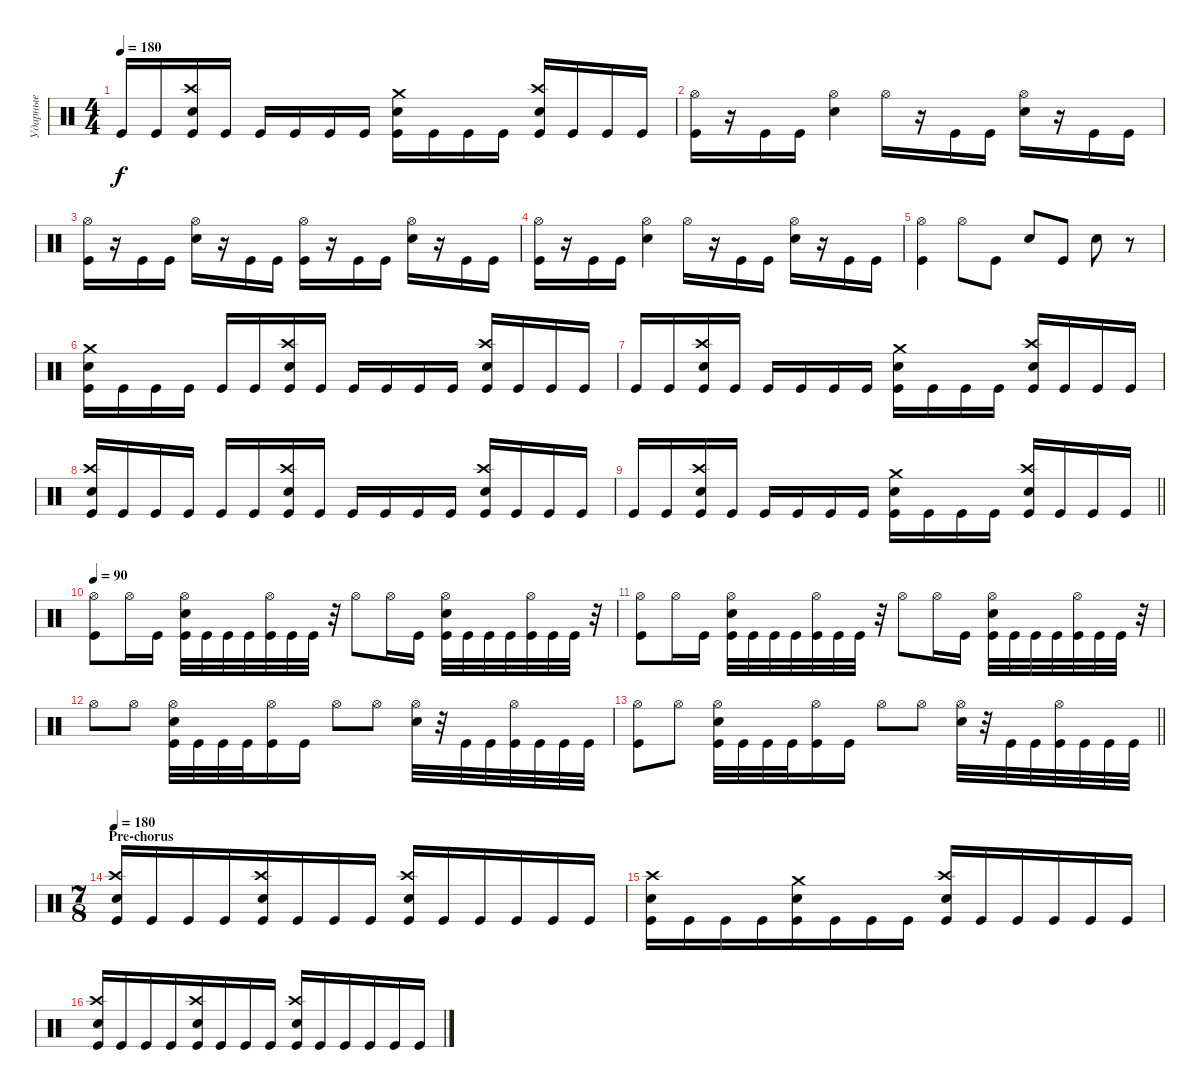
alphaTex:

\track ("Ударные" "Ударные") {instrument percussion}
\staff {score}
\articulation defaults
\ts (4 4)
\tempo 180
\clef neutral
\ks c "Kick (hit)".16{dy f} "Kick (hit)".16
("Crash high (hit)" "Electric Snare (hit)" "Kick (hit)").16 "Kick (hit)".16 "Kick (hit)".16 "Kick (hit)".16 "Kick (hit)".16 "Kick (hit)".16 ("Crash medium (hit)" "Electric Snare (hit)" "Kick (hit)").16 "Kick (hit)".16 "Kick (hit)".16 "Kick (hit)".16 ("Crash high (hit)" "Electric Snare (hit)" "Kick (hit)").16 "Kick (hit)".16 "Kick (hit)".16 "Kick (hit)".16 |
("Hi-Hat (open)" "Kick (hit)").16 r.16 "Kick (hit)".16 "Kick (hit)".16 ("Hi-Hat (open)" "Electric Snare (hit)").4 "Hi-Hat (open)".16 r.16 "Kick (hit)".16 "Kick (hit)".16 ("Hi-Hat (open)" "Electric Snare (hit)").16 r.16 "Kick (hit)".16 "Kick (hit)".16 |
("Hi-Hat (open)" "Kick (hit)").16 r.16 "Kick (hit)".16 "Kick (hit)".16 ("Hi-Hat (open)" "Electric Snare (hit)").16 r.16 "Kick (hit)".16 "Kick (hit)".16 ("Hi-Hat (open)" "Kick (hit)").16 r.16 "Kick (hit)".16 "Kick (hit)".16 ("Hi-Hat (open)" "Electric Snare (hit)").16 r.16 "Kick (hit)".16 "Kick (hit)".16 |
("Hi-Hat (open)" "Kick (hit)").16 r.16 "Kick (hit)".16 "Kick (hit)".16 ("Hi-Hat (open)" "Electric Snare (hit)").4 "Hi-Hat (open)".16 r.16 "Kick (hit)".16 "Kick (hit)".16 ("Hi-Hat (open)" "Electric Snare (hit)").16 r.16 "Kick (hit)".16 "Kick (hit)".16 |
("Hi-Hat (open)" "Kick (hit)").4 "Hi-Hat (open)".8 "Kick (hit)".8 "Electric Snare (hit)".8 "Kick (hit)".8 "Electric Snare (hit)".8 r.8 |
("Crash medium (hit)" "Electric Snare (hit)" "Kick (hit)").16 "Kick (hit)".16 "Kick (hit)".16 "Kick (hit)".16 "Kick (hit)".16 "Kick (hit)".16 ("Crash high (hit)" "Electric Snare (hit)" "Kick (hit)").16 "Kick (hit)".16 "Kick (hit)".16 "Kick (hit)".16 "Kick (hit)".16 "Kick (hit)".16 ("Crash high (hit)" "Electric Snare (hit)" "Kick (hit)").16 "Kick (hit)".16 "Kick (hit)".16 "Kick (hit)".16 |
"Kick (hit)".16 "Kick (hit)".16 ("Crash high (hit)" "Electric Snare (hit)" "Kick (hit)").16 "Kick (hit)".16 "Kick (hit)".16 "Kick (hit)".16 "Kick (hit)".16 "Kick (hit)".16 ("Crash medium (hit)" "Electric Snare (hit)" "Kick (hit)").16 "Kick (hit)".16 "Kick (hit)".16 "Kick (hit)".16 ("Crash high (hit)" "Electric Snare (hit)" "Kick (hit)").16 "Kick (hit)".16 "Kick (hit)".16 "Kick (hit)".16 |
("Crash high (hit)" "Electric Snare (hit)" "Kick (hit)").16 "Kick (hit)".16 "Kick (hit)".16 "Kick (hit)".16 "Kick (hit)".16 "Kick (hit)".16 ("Crash high (hit)" "Electric Snare (hit)" "Kick (hit)").16 "Kick (hit)".16 "Kick (hit)".16 "Kick (hit)".16 "Kick (hit)".16 "Kick (hit)".16 ("Crash high (hit)" "Electric Snare (hit)" "Kick (hit)").16 "Kick (hit)".16 "Kick (hit)".16 "Kick (hit)".16 |
\barLineRight lightlight "Kick (hit)".16 "Kick (hit)".16
("Crash high (hit)" "Electric Snare (hit)" "Kick (hit)").16 "Kick (hit)".16 "Kick (hit)".16 "Kick (hit)".16 "Kick (hit)".16 "Kick (hit)".16 ("Crash medium (hit)" "Electric Snare (hit)" "Kick (hit)").16 "Kick (hit)".16 "Kick (hit)".16 "Kick (hit)".16 ("Crash high (hit)" "Electric Snare (hit)" "Kick (hit)").16 "Kick (hit)".16 "Kick (hit)".16 "Kick (hit)".16 |
\section ("" "")
\tempo 90
("Hi-Hat (open)" "Kick (hit)").8 "Hi-Hat (open)".16 "Kick (hit)".16 ("Hi-Hat (open)" "Electric Snare (hit)" "Kick (hit)").32 "Kick (hit)".32 "Kick (hit)".32 "Kick (hit)".32 ("Hi-Hat (open)" "Kick (hit)").32 "Kick (hit)".32 "Kick (hit)".32 r.32 "Hi-Hat (open)".8 "Hi-Hat (open)".16 "Kick (hit)".16 ("Hi-Hat (open)" "Electric Snare (hit)" "Kick (hit)").32 "Kick (hit)".32 "Kick (hit)".32 "Kick (hit)".32 ("Hi-Hat (open)" "Kick (hit)").32 "Kick (hit)".32 "Kick (hit)".32 r.32 |
("Hi-Hat (open)" "Kick (hit)").8 "Hi-Hat (open)".16 "Kick (hit)".16 ("Hi-Hat (open)" "Electric Snare (hit)" "Kick (hit)").32 "Kick (hit)".32 "Kick (hit)".32 "Kick (hit)".32 ("Hi-Hat (open)" "Kick (hit)").32 "Kick (hit)".32 "Kick (hit)".32 r.32 "Hi-Hat (open)".8 "Hi-Hat (open)".16 "Kick (hit)".16 ("Hi-Hat (open)" "Electric Snare (hit)" "Kick (hit)").32 "Kick (hit)".32 "Kick (hit)".32 "Kick (hit)".32 ("Hi-Hat (open)" "Kick (hit)").32 "Kick (hit)".32 "Kick (hit)".32 r.32 |
"Hi-Hat (open)".8 "Hi-Hat (open)".8 ("Hi-Hat (open)" "Electric Snare (hit)" "Kick (hit)").32 "Kick (hit)".32 "Kick (hit)".32 "Kick (hit)".32 ("Hi-Hat (open)" "Kick (hit)").16 "Kick (hit)".16 "Hi-Hat (open)".8 "Hi-Hat (open)".8 ("Hi-Hat (open)" "Electric Snare (hit)").32 r.32 "Kick (hit)".32 "Kick (hit)".32 ("Hi-Hat (open)" "Kick (hit)").32 "Kick (hit)".32 "Kick (hit)".32 "Kick (hit)".32 |
\barLineRight lightlight
("Hi-Hat (open)" "Kick (hit)").8 "Hi-Hat (open)".8 ("Hi-Hat (open)" "Electric Snare (hit)" "Kick (hit)").32 "Kick (hit)".32 "Kick (hit)".32 "Kick (hit)".32 ("Hi-Hat (open)" "Kick (hit)").16 "Kick (hit)".16 "Hi-Hat (open)".8 "Hi-Hat (open)".8 ("Hi-Hat (open)" "Electric Snare (hit)").32 r.32 "Kick (hit)".32 "Kick (hit)".32 ("Hi-Hat (open)" "Kick (hit)").32 "Kick (hit)".32 "Kick (hit)".32 "Kick (hit)".32 |
\ts (7 8)
\section ("" "Pre-chorus")
\tempo 180
("Crash high (hit)" "Electric Snare (hit)" "Kick (hit)").16 "Kick (hit)".16 "Kick (hit)".16 "Kick (hit)".16 ("Crash high (hit)" "Electric Snare (hit)" "Kick (hit)").16 "Kick (hit)".16 "Kick (hit)".16 "Kick (hit)".16 ("Crash high (hit)" "Electric Snare (hit)" "Kick (hit)").16 "Kick (hit)".16 "Kick (hit)".16 "Kick (hit)".16 "Kick (hit)".16 "Kick (hit)".16 |
("Crash high (hit)" "Electric Snare (hit)" "Kick (hit)").16 "Kick (hit)".16 "Kick (hit)".16 "Kick (hit)".16 ("Crash medium (hit)" "Electric Snare (hit)" "Kick (hit)").16 "Kick (hit)".16 "Kick (hit)".16 "Kick (hit)".16 ("Crash high (hit)" "Electric Snare (hit)" "Kick (hit)").16 "Kick (hit)".16 "Kick (hit)".16 "Kick (hit)".16 "Kick (hit)".16 "Kick (hit)".16 |
("Crash high (hit)" "Electric Snare (hit)" "Kick (hit)").16 "Kick (hit)".16 "Kick (hit)".16 "Kick (hit)".16 ("Crash high (hit)" "Electric Snare (hit)" "Kick (hit)").16 "Kick (hit)".16 "Kick (hit)".16 "Kick (hit)".16 ("Crash high (hit)" "Electric Snare (hit)" "Kick (hit)").16 "Kick (hit)".16 "Kick (hit)".16 "Kick (hit)".16 "Kick (hit)".16 "Kick (hit)".16
